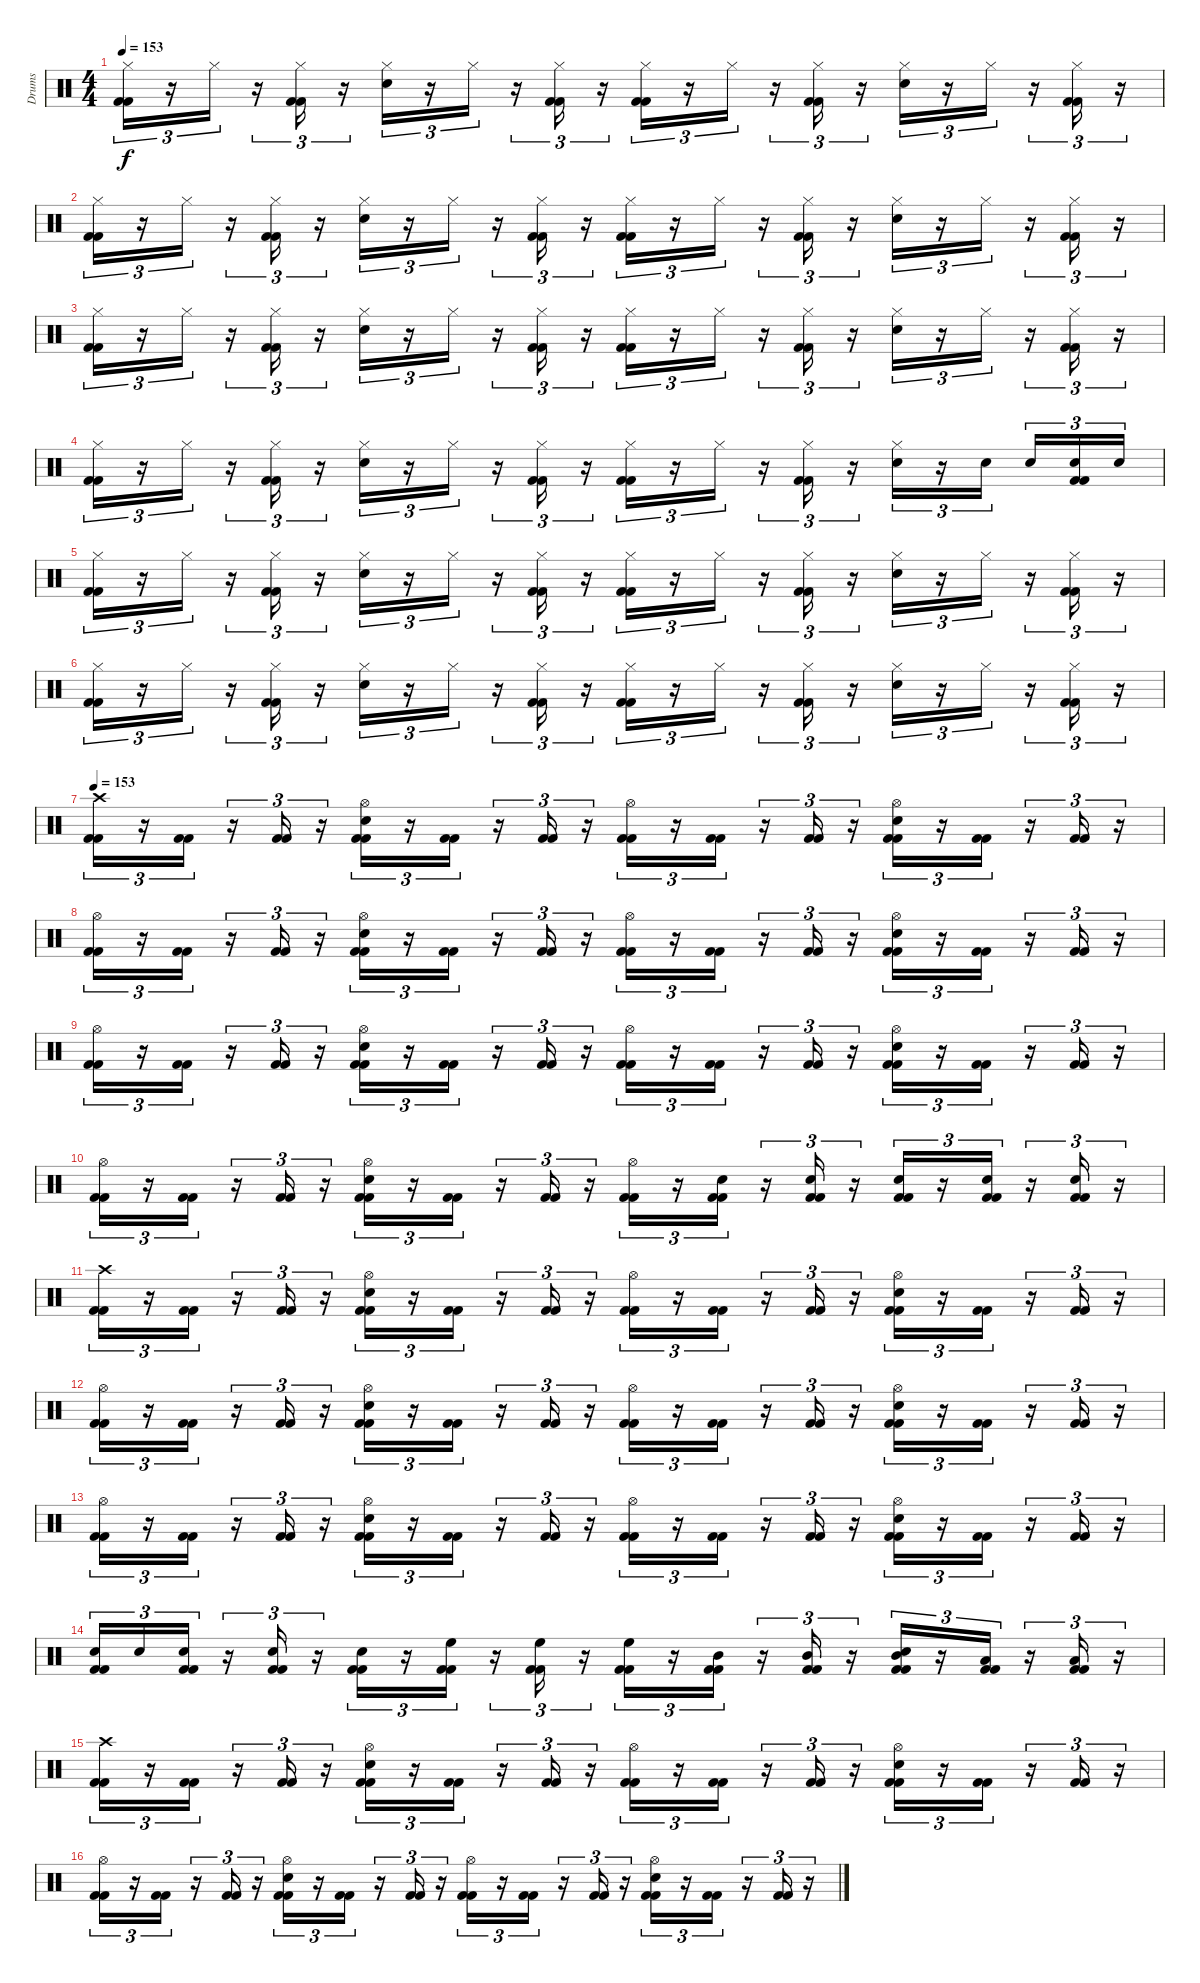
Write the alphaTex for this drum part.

\track ("Drums" "Drums") {instrument percussion}
\staff {score}
\articulation defaults
\ts (4 4)
\tempo 153
\clef neutral
\ks c
("Hi-Hat (closed)" "Kick (hit) 2" "Kick (hit) 2").16{tu (3 2) dy f} r.16{tu (3 2)} "Hi-Hat (closed)".16{tu (3 2)} r.16{tu (3 2)} ("Hi-Hat (closed)" "Kick (hit) 2" "Kick (hit) 2").16{tu (3 2)} r.16{tu (3 2)} ("Hi-Hat (closed)" "Snare (hit) 2").16{tu (3 2)} r.16{tu (3 2)} "Hi-Hat (closed)".16{tu (3 2)} r.16{tu (3 2)} ("Hi-Hat (closed)" "Kick (hit) 2" "Kick (hit) 2").16{tu (3 2)} r.16{tu (3 2)} ("Hi-Hat (closed)" "Kick (hit) 2" "Kick (hit) 2").16{tu (3 2)} r.16{tu (3 2)} "Hi-Hat (closed)".16{tu (3 2)} r.16{tu (3 2)} ("Hi-Hat (closed)" "Kick (hit) 2" "Kick (hit) 2").16{tu (3 2)} r.16{tu (3 2)} ("Hi-Hat (closed)" "Snare (hit) 2").16{tu (3 2)} r.16{tu (3 2)} "Hi-Hat (closed)".16{tu (3 2)} r.16{tu (3 2)} ("Hi-Hat (closed)" "Kick (hit) 2" "Kick (hit) 2").16{tu (3 2)} r.16{tu (3 2)} |
("Hi-Hat (closed)" "Kick (hit) 2" "Kick (hit) 2").16{tu (3 2)} r.16{tu (3 2)} "Hi-Hat (closed)".16{tu (3 2)} r.16{tu (3 2)} ("Hi-Hat (closed)" "Kick (hit) 2" "Kick (hit) 2").16{tu (3 2)} r.16{tu (3 2)} ("Hi-Hat (closed)" "Snare (hit) 2").16{tu (3 2)} r.16{tu (3 2)} "Hi-Hat (closed)".16{tu (3 2)} r.16{tu (3 2)} ("Hi-Hat (closed)" "Kick (hit) 2" "Kick (hit) 2").16{tu (3 2)} r.16{tu (3 2)} ("Hi-Hat (closed)" "Kick (hit) 2" "Kick (hit) 2").16{tu (3 2)} r.16{tu (3 2)} "Hi-Hat (closed)".16{tu (3 2)} r.16{tu (3 2)} ("Hi-Hat (closed)" "Kick (hit) 2" "Kick (hit) 2").16{tu (3 2)} r.16{tu (3 2)} ("Hi-Hat (closed)" "Snare (hit) 2").16{tu (3 2)} r.16{tu (3 2)} "Hi-Hat (closed)".16{tu (3 2)} r.16{tu (3 2)} ("Hi-Hat (closed)" "Kick (hit) 2" "Kick (hit) 2").16{tu (3 2)} r.16{tu (3 2)} |
("Hi-Hat (closed)" "Kick (hit) 2" "Kick (hit) 2").16{tu (3 2)} r.16{tu (3 2)} "Hi-Hat (closed)".16{tu (3 2)} r.16{tu (3 2)} ("Hi-Hat (closed)" "Kick (hit) 2" "Kick (hit) 2").16{tu (3 2)} r.16{tu (3 2)} ("Hi-Hat (closed)" "Snare (hit) 2").16{tu (3 2)} r.16{tu (3 2)} "Hi-Hat (closed)".16{tu (3 2)} r.16{tu (3 2)} ("Hi-Hat (closed)" "Kick (hit) 2" "Kick (hit) 2").16{tu (3 2)} r.16{tu (3 2)} ("Hi-Hat (closed)" "Kick (hit) 2" "Kick (hit) 2").16{tu (3 2)} r.16{tu (3 2)} "Hi-Hat (closed)".16{tu (3 2)} r.16{tu (3 2)} ("Hi-Hat (closed)" "Kick (hit) 2" "Kick (hit) 2").16{tu (3 2)} r.16{tu (3 2)} ("Hi-Hat (closed)" "Snare (hit) 2").16{tu (3 2)} r.16{tu (3 2)} "Hi-Hat (closed)".16{tu (3 2)} r.16{tu (3 2)} ("Hi-Hat (closed)" "Kick (hit) 2" "Kick (hit) 2").16{tu (3 2)} r.16{tu (3 2)} |
("Hi-Hat (closed)" "Kick (hit) 2" "Kick (hit) 2").16{tu (3 2)} r.16{tu (3 2)} "Hi-Hat (closed)".16{tu (3 2)} r.16{tu (3 2)} ("Hi-Hat (closed)" "Kick (hit) 2" "Kick (hit) 2").16{tu (3 2)} r.16{tu (3 2)} ("Hi-Hat (closed)" "Snare (hit) 2").16{tu (3 2)} r.16{tu (3 2)} "Hi-Hat (closed)".16{tu (3 2)} r.16{tu (3 2)} ("Hi-Hat (closed)" "Kick (hit) 2" "Kick (hit) 2").16{tu (3 2)} r.16{tu (3 2)} ("Hi-Hat (closed)" "Kick (hit) 2" "Kick (hit) 2").16{tu (3 2)} r.16{tu (3 2)} "Hi-Hat (closed)".16{tu (3 2)} r.16{tu (3 2)} ("Hi-Hat (closed)" "Kick (hit) 2" "Kick (hit) 2").16{tu (3 2)} r.16{tu (3 2)} ("Hi-Hat (closed)" "Snare (hit) 2").16{tu (3 2)} r.16{tu (3 2)} "Snare (hit) 2".16{tu (3 2)} "Snare (hit) 2".16{tu (3 2)} ("Snare (hit) 2" "Kick (hit) 2" "Kick (hit) 2").16{tu (3 2)} "Snare (hit) 2".16{tu (3 2)} |
("Hi-Hat (closed)" "Kick (hit) 2" "Kick (hit) 2").16{tu (3 2)} r.16{tu (3 2)} "Hi-Hat (closed)".16{tu (3 2)} r.16{tu (3 2)} ("Hi-Hat (closed)" "Kick (hit) 2" "Kick (hit) 2").16{tu (3 2)} r.16{tu (3 2)} ("Hi-Hat (closed)" "Snare (hit) 2").16{tu (3 2)} r.16{tu (3 2)} "Hi-Hat (closed)".16{tu (3 2)} r.16{tu (3 2)} ("Hi-Hat (closed)" "Kick (hit) 2" "Kick (hit) 2").16{tu (3 2)} r.16{tu (3 2)} ("Hi-Hat (closed)" "Kick (hit) 2" "Kick (hit) 2").16{tu (3 2)} r.16{tu (3 2)} "Hi-Hat (closed)".16{tu (3 2)} r.16{tu (3 2)} ("Hi-Hat (closed)" "Kick (hit) 2" "Kick (hit) 2").16{tu (3 2)} r.16{tu (3 2)} ("Hi-Hat (closed)" "Snare (hit) 2").16{tu (3 2)} r.16{tu (3 2)} "Hi-Hat (closed)".16{tu (3 2)} r.16{tu (3 2)} ("Hi-Hat (closed)" "Kick (hit) 2" "Kick (hit) 2").16{tu (3 2)} r.16{tu (3 2)} |
("Hi-Hat (closed)" "Kick (hit) 2" "Kick (hit) 2").16{tu (3 2)} r.16{tu (3 2)} "Hi-Hat (closed)".16{tu (3 2)} r.16{tu (3 2)} ("Hi-Hat (closed)" "Kick (hit) 2" "Kick (hit) 2").16{tu (3 2)} r.16{tu (3 2)} ("Hi-Hat (closed)" "Snare (hit) 2").16{tu (3 2)} r.16{tu (3 2)} "Hi-Hat (closed)".16{tu (3 2)} r.16{tu (3 2)} ("Hi-Hat (closed)" "Kick (hit) 2" "Kick (hit) 2").16{tu (3 2)} r.16{tu (3 2)} ("Hi-Hat (closed)" "Kick (hit) 2" "Kick (hit) 2").16{tu (3 2)} r.16{tu (3 2)} "Hi-Hat (closed)".16{tu (3 2)} r.16{tu (3 2)} ("Hi-Hat (closed)" "Kick (hit) 2" "Kick (hit) 2").16{tu (3 2)} r.16{tu (3 2)} ("Hi-Hat (closed)" "Snare (hit) 2").16{tu (3 2)} r.16{tu (3 2)} "Hi-Hat (closed)".16{tu (3 2)} r.16{tu (3 2)} ("Hi-Hat (closed)" "Kick (hit) 2" "Kick (hit) 2").16{tu (3 2)} r.16{tu (3 2)} |
\tempo 153
("Crash high (hit)" "Kick (hit) 2" "Kick (hit) 2").16{tu (3 2)} r.16{tu (3 2)} ("Kick (hit) 2" "Kick (hit) 2").16{tu (3 2)} r.16{tu (3 2)} ("Kick (hit) 2" "Kick (hit) 2").16{tu (3 2)} r.16{tu (3 2)} ("Hi-Hat (open)" "Snare (hit) 2" "Kick (hit) 2" "Kick (hit) 2").16{tu (3 2)} r.16{tu (3 2)} ("Kick (hit) 2" "Kick (hit) 2").16{tu (3 2)} r.16{tu (3 2)} ("Kick (hit) 2" "Kick (hit) 2").16{tu (3 2)} r.16{tu (3 2)} ("Hi-Hat (open)" "Kick (hit) 2" "Kick (hit) 2").16{tu (3 2)} r.16{tu (3 2)} ("Kick (hit) 2" "Kick (hit) 2").16{tu (3 2)} r.16{tu (3 2)} ("Kick (hit) 2" "Kick (hit) 2").16{tu (3 2)} r.16{tu (3 2)} ("Hi-Hat (open)" "Snare (hit) 2" "Kick (hit) 2" "Kick (hit) 2").16{tu (3 2)} r.16{tu (3 2)} ("Kick (hit) 2" "Kick (hit) 2").16{tu (3 2)} r.16{tu (3 2)} ("Kick (hit) 2" "Kick (hit) 2").16{tu (3 2)} r.16{tu (3 2)} |
("Hi-Hat (open)" "Kick (hit) 2" "Kick (hit) 2").16{tu (3 2)} r.16{tu (3 2)} ("Kick (hit) 2" "Kick (hit) 2").16{tu (3 2)} r.16{tu (3 2)} ("Kick (hit) 2" "Kick (hit) 2").16{tu (3 2)} r.16{tu (3 2)} ("Hi-Hat (open)" "Snare (hit) 2" "Kick (hit) 2" "Kick (hit) 2").16{tu (3 2)} r.16{tu (3 2)} ("Kick (hit) 2" "Kick (hit) 2").16{tu (3 2)} r.16{tu (3 2)} ("Kick (hit) 2" "Kick (hit) 2").16{tu (3 2)} r.16{tu (3 2)} ("Hi-Hat (open)" "Kick (hit) 2" "Kick (hit) 2").16{tu (3 2)} r.16{tu (3 2)} ("Kick (hit) 2" "Kick (hit) 2").16{tu (3 2)} r.16{tu (3 2)} ("Kick (hit) 2" "Kick (hit) 2").16{tu (3 2)} r.16{tu (3 2)} ("Hi-Hat (open)" "Snare (hit) 2" "Kick (hit) 2" "Kick (hit) 2").16{tu (3 2)} r.16{tu (3 2)} ("Kick (hit) 2" "Kick (hit) 2").16{tu (3 2)} r.16{tu (3 2)} ("Kick (hit) 2" "Kick (hit) 2").16{tu (3 2)} r.16{tu (3 2)} |
("Hi-Hat (open)" "Kick (hit) 2" "Kick (hit) 2").16{tu (3 2)} r.16{tu (3 2)} ("Kick (hit) 2" "Kick (hit) 2").16{tu (3 2)} r.16{tu (3 2)} ("Kick (hit) 2" "Kick (hit) 2").16{tu (3 2)} r.16{tu (3 2)} ("Hi-Hat (open)" "Snare (hit) 2" "Kick (hit) 2" "Kick (hit) 2").16{tu (3 2)} r.16{tu (3 2)} ("Kick (hit) 2" "Kick (hit) 2").16{tu (3 2)} r.16{tu (3 2)} ("Kick (hit) 2" "Kick (hit) 2").16{tu (3 2)} r.16{tu (3 2)} ("Hi-Hat (open)" "Kick (hit) 2" "Kick (hit) 2").16{tu (3 2)} r.16{tu (3 2)} ("Kick (hit) 2" "Kick (hit) 2").16{tu (3 2)} r.16{tu (3 2)} ("Kick (hit) 2" "Kick (hit) 2").16{tu (3 2)} r.16{tu (3 2)} ("Hi-Hat (open)" "Snare (hit) 2" "Kick (hit) 2" "Kick (hit) 2").16{tu (3 2)} r.16{tu (3 2)} ("Kick (hit) 2" "Kick (hit) 2").16{tu (3 2)} r.16{tu (3 2)} ("Kick (hit) 2" "Kick (hit) 2").16{tu (3 2)} r.16{tu (3 2)} |
("Hi-Hat (open)" "Kick (hit) 2" "Kick (hit) 2").16{tu (3 2)} r.16{tu (3 2)} ("Kick (hit) 2" "Kick (hit) 2").16{tu (3 2)} r.16{tu (3 2)} ("Kick (hit) 2" "Kick (hit) 2").16{tu (3 2)} r.16{tu (3 2)} ("Hi-Hat (open)" "Snare (hit) 2" "Kick (hit) 2" "Kick (hit) 2").16{tu (3 2)} r.16{tu (3 2)} ("Kick (hit) 2" "Kick (hit) 2").16{tu (3 2)} r.16{tu (3 2)} ("Kick (hit) 2" "Kick (hit) 2").16{tu (3 2)} r.16{tu (3 2)} ("Hi-Hat (open)" "Kick (hit) 2" "Kick (hit) 2").16{tu (3 2)} r.16{tu (3 2)} ("Snare (hit) 2" "Kick (hit) 2" "Kick (hit) 2").16{tu (3 2)} r.16{tu (3 2)} ("Snare (hit) 2" "Kick (hit) 2" "Kick (hit) 2").16{tu (3 2)} r.16{tu (3 2)} ("Snare (hit) 2" "Kick (hit) 2" "Kick (hit) 2").16{tu (3 2)} r.16{tu (3 2)} ("Snare (hit) 2" "Kick (hit) 2" "Kick (hit) 2").16{tu (3 2)} r.16{tu (3 2)} ("Snare (hit) 2" "Kick (hit) 2" "Kick (hit) 2").16{tu (3 2)} r.16{tu (3 2)} |
("Crash high (hit)" "Kick (hit) 2" "Kick (hit) 2").16{tu (3 2)} r.16{tu (3 2)} ("Kick (hit) 2" "Kick (hit) 2").16{tu (3 2)} r.16{tu (3 2)} ("Kick (hit) 2" "Kick (hit) 2").16{tu (3 2)} r.16{tu (3 2)} ("Hi-Hat (open)" "Snare (hit) 2" "Kick (hit) 2" "Kick (hit) 2").16{tu (3 2)} r.16{tu (3 2)} ("Kick (hit) 2" "Kick (hit) 2").16{tu (3 2)} r.16{tu (3 2)} ("Kick (hit) 2" "Kick (hit) 2").16{tu (3 2)} r.16{tu (3 2)} ("Hi-Hat (open)" "Kick (hit) 2" "Kick (hit) 2").16{tu (3 2)} r.16{tu (3 2)} ("Kick (hit) 2" "Kick (hit) 2").16{tu (3 2)} r.16{tu (3 2)} ("Kick (hit) 2" "Kick (hit) 2").16{tu (3 2)} r.16{tu (3 2)} ("Hi-Hat (open)" "Snare (hit) 2" "Kick (hit) 2" "Kick (hit) 2").16{tu (3 2)} r.16{tu (3 2)} ("Kick (hit) 2" "Kick (hit) 2").16{tu (3 2)} r.16{tu (3 2)} ("Kick (hit) 2" "Kick (hit) 2").16{tu (3 2)} r.16{tu (3 2)} |
("Hi-Hat (open)" "Kick (hit) 2" "Kick (hit) 2").16{tu (3 2)} r.16{tu (3 2)} ("Kick (hit) 2" "Kick (hit) 2").16{tu (3 2)} r.16{tu (3 2)} ("Kick (hit) 2" "Kick (hit) 2").16{tu (3 2)} r.16{tu (3 2)} ("Hi-Hat (open)" "Snare (hit) 2" "Kick (hit) 2" "Kick (hit) 2").16{tu (3 2)} r.16{tu (3 2)} ("Kick (hit) 2" "Kick (hit) 2").16{tu (3 2)} r.16{tu (3 2)} ("Kick (hit) 2" "Kick (hit) 2").16{tu (3 2)} r.16{tu (3 2)} ("Hi-Hat (open)" "Kick (hit) 2" "Kick (hit) 2").16{tu (3 2)} r.16{tu (3 2)} ("Kick (hit) 2" "Kick (hit) 2").16{tu (3 2)} r.16{tu (3 2)} ("Kick (hit) 2" "Kick (hit) 2").16{tu (3 2)} r.16{tu (3 2)} ("Hi-Hat (open)" "Snare (hit) 2" "Kick (hit) 2" "Kick (hit) 2").16{tu (3 2)} r.16{tu (3 2)} ("Kick (hit) 2" "Kick (hit) 2").16{tu (3 2)} r.16{tu (3 2)} ("Kick (hit) 2" "Kick (hit) 2").16{tu (3 2)} r.16{tu (3 2)} |
("Hi-Hat (open)" "Kick (hit) 2" "Kick (hit) 2").16{tu (3 2)} r.16{tu (3 2)} ("Kick (hit) 2" "Kick (hit) 2").16{tu (3 2)} r.16{tu (3 2)} ("Kick (hit) 2" "Kick (hit) 2").16{tu (3 2)} r.16{tu (3 2)} ("Hi-Hat (open)" "Snare (hit) 2" "Kick (hit) 2" "Kick (hit) 2").16{tu (3 2)} r.16{tu (3 2)} ("Kick (hit) 2" "Kick (hit) 2").16{tu (3 2)} r.16{tu (3 2)} ("Kick (hit) 2" "Kick (hit) 2").16{tu (3 2)} r.16{tu (3 2)} ("Hi-Hat (open)" "Kick (hit) 2" "Kick (hit) 2").16{tu (3 2)} r.16{tu (3 2)} ("Kick (hit) 2" "Kick (hit) 2").16{tu (3 2)} r.16{tu (3 2)} ("Kick (hit) 2" "Kick (hit) 2").16{tu (3 2)} r.16{tu (3 2)} ("Hi-Hat (open)" "Snare (hit) 2" "Kick (hit) 2" "Kick (hit) 2").16{tu (3 2)} r.16{tu (3 2)} ("Kick (hit) 2" "Kick (hit) 2").16{tu (3 2)} r.16{tu (3 2)} ("Kick (hit) 2" "Kick (hit) 2").16{tu (3 2)} r.16{tu (3 2)} |
("Snare (hit) 2" "Kick (hit) 2" "Kick (hit) 2").16{tu (3 2)} "Snare (hit) 2".16{tu (3 2)} ("Snare (hit) 2" "Kick (hit) 2" "Kick (hit) 2").16{tu (3 2)} r.16{tu (3 2)} ("Snare (hit) 2" "Kick (hit) 2" "Kick (hit) 2").16{tu (3 2)} r.16{tu (3 2)} ("Snare (hit) 2" "Kick (hit) 2" "Kick (hit) 2").16{tu (3 2)} r.16{tu (3 2)} ("High Floor Tom (hit)" "Kick (hit) 2" "Kick (hit) 2").16{tu (3 2)} r.16{tu (3 2)} ("High Floor Tom (hit)" "Kick (hit) 2" "Kick (hit) 2").16{tu (3 2)} r.16{tu (3 2)} ("High Floor Tom (hit)" "Kick (hit) 2" "Kick (hit) 2").16{tu (3 2)} r.16{tu (3 2)} ("Mid Tom (hit)" "Kick (hit) 2" "Kick (hit) 2").16{tu (3 2)} r.16{tu (3 2)} ("Mid Tom (hit)" "Kick (hit) 2" "Kick (hit) 2").16{tu (3 2)} r.16{tu (3 2)} ("Mid Tom (hit)" "Snare (hit) 2" "Kick (hit) 2" "Kick (hit) 2").16{tu (3 2)} r.16{tu (3 2)} ("Low Tom (hit)" "Kick (hit) 2" "Kick (hit) 2").16{tu (3 2)} r.16{tu (3 2)} ("Low Tom (hit)" "Kick (hit) 2" "Kick (hit) 2").16{tu (3 2)} r.16{tu (3 2)} |
("Crash high (hit)" "Kick (hit) 2" "Kick (hit) 2").16{tu (3 2)} r.16{tu (3 2)} ("Kick (hit) 2" "Kick (hit) 2").16{tu (3 2)} r.16{tu (3 2)} ("Kick (hit) 2" "Kick (hit) 2").16{tu (3 2)} r.16{tu (3 2)} ("Hi-Hat (open)" "Snare (hit) 2" "Kick (hit) 2" "Kick (hit) 2").16{tu (3 2)} r.16{tu (3 2)} ("Kick (hit) 2" "Kick (hit) 2").16{tu (3 2)} r.16{tu (3 2)} ("Kick (hit) 2" "Kick (hit) 2").16{tu (3 2)} r.16{tu (3 2)} ("Hi-Hat (open)" "Kick (hit) 2" "Kick (hit) 2").16{tu (3 2)} r.16{tu (3 2)} ("Kick (hit) 2" "Kick (hit) 2").16{tu (3 2)} r.16{tu (3 2)} ("Kick (hit) 2" "Kick (hit) 2").16{tu (3 2)} r.16{tu (3 2)} ("Hi-Hat (open)" "Snare (hit) 2" "Kick (hit) 2" "Kick (hit) 2").16{tu (3 2)} r.16{tu (3 2)} ("Kick (hit) 2" "Kick (hit) 2").16{tu (3 2)} r.16{tu (3 2)} ("Kick (hit) 2" "Kick (hit) 2").16{tu (3 2)} r.16{tu (3 2)} |
("Hi-Hat (open)" "Kick (hit) 2" "Kick (hit) 2").16{tu (3 2)} r.16{tu (3 2)} ("Kick (hit) 2" "Kick (hit) 2").16{tu (3 2)} r.16{tu (3 2)} ("Kick (hit) 2" "Kick (hit) 2").16{tu (3 2)} r.16{tu (3 2)} ("Hi-Hat (open)" "Snare (hit) 2" "Kick (hit) 2" "Kick (hit) 2").16{tu (3 2)} r.16{tu (3 2)} ("Kick (hit) 2" "Kick (hit) 2").16{tu (3 2)} r.16{tu (3 2)} ("Kick (hit) 2" "Kick (hit) 2").16{tu (3 2)} r.16{tu (3 2)} ("Hi-Hat (open)" "Kick (hit) 2" "Kick (hit) 2").16{tu (3 2)} r.16{tu (3 2)} ("Kick (hit) 2" "Kick (hit) 2").16{tu (3 2)} r.16{tu (3 2)} ("Kick (hit) 2" "Kick (hit) 2").16{tu (3 2)} r.16{tu (3 2)} ("Hi-Hat (open)" "Snare (hit) 2" "Kick (hit) 2" "Kick (hit) 2").16{tu (3 2)} r.16{tu (3 2)} ("Kick (hit) 2" "Kick (hit) 2").16{tu (3 2)} r.16{tu (3 2)} ("Kick (hit) 2" "Kick (hit) 2").16{tu (3 2)} r.16{tu (3 2)}
